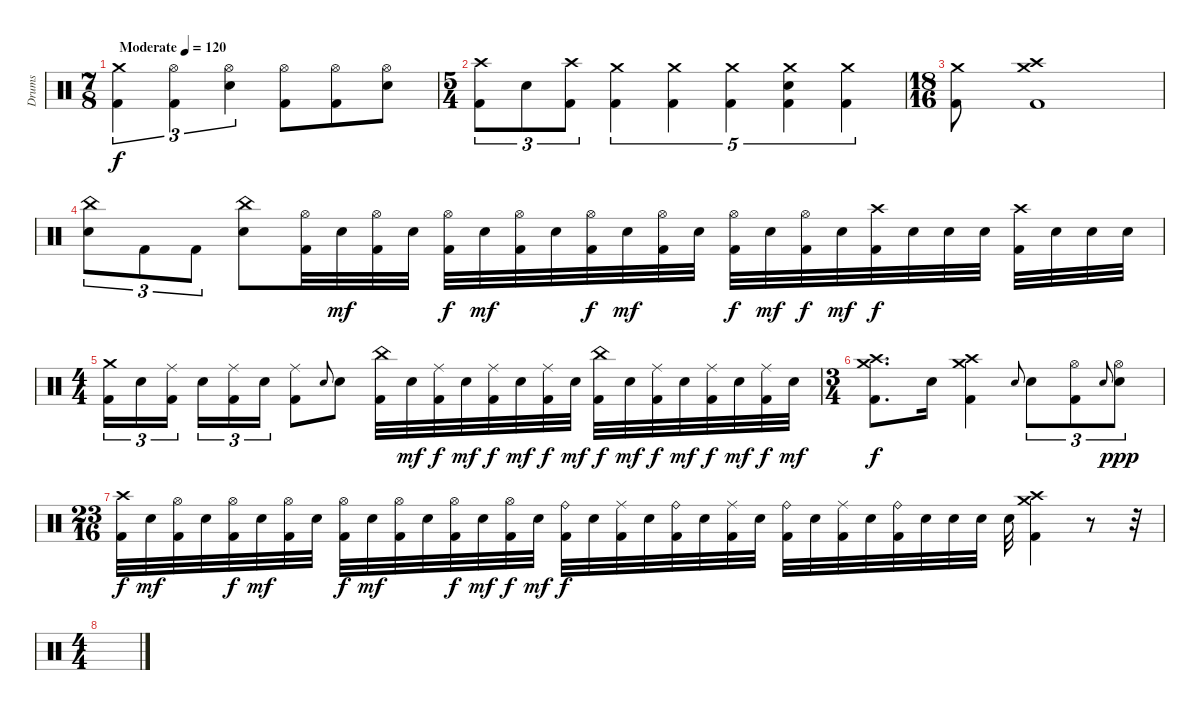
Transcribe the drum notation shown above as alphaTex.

\track ("Drums" "Drums") {instrument percussion}
\staff {score}
\articulation defaults
\ts (7 8)
\tempo (120 "Moderate")
\clef neutral
\ks c
("Crash medium (hit)" "Kick (hit) 2").4{tu (3 2) dy f} ("Hi-Hat (open)" "Kick (hit) 2").4{tu (3 2)} ("Hi-Hat (open)" "Electric Snare (hit)").4{tu (3 2)} ("Hi-Hat (open)" "Kick (hit) 2").8 ("Hi-Hat (open)" "Kick (hit) 2").8 ("Hi-Hat (open)" "Electric Snare (hit)").8 |
\ts (5 4)
("Crash high (hit)" "Kick (hit) 2").8{tu (3 2)} "Electric Snare (hit)".8{tu (3 2)} ("Crash high (hit)" "Kick (hit) 2").8{tu (3 2)} ("Crash medium (hit)" "Kick (hit) 2").4{tu (5 4)} ("Crash medium (hit)" "Kick (hit) 2").4{tu (5 4)} ("Crash medium (hit)" "Kick (hit) 2").4{tu (5 4)} ("Crash medium (hit)" "Electric Snare (hit)" "Kick (hit) 2").4{tu (5 4)} ("Crash medium (hit)" "Kick (hit) 2").4{tu (5 4)} |
\ts (18 16)
("Crash medium (hit)" "Kick (hit) 2").8 ("Crash medium (hit)" "Crash high (hit)" "Kick (hit) 2").1 |
("China (hit)" "Electric Snare (hit)").8{tu (3 2)} "Kick (hit) 2".8{tu (3 2)} "Kick (hit) 2".8{tu (3 2)} ("China (hit)" "Electric Snare (hit)").8 ("Hi-Hat (open)" "Kick (hit) 2").32 "Electric Snare (hit)".32{dy mf} ("Hi-Hat (open)" "Kick (hit) 2").32 "Electric Snare (hit)".32 ("Hi-Hat (open)" "Kick (hit) 2").32{dy f} "Electric Snare (hit)".32{dy mf} ("Hi-Hat (open)" "Kick (hit) 2").32 "Electric Snare (hit)".32 ("Hi-Hat (open)" "Kick (hit) 2").32{dy f} "Electric Snare (hit)".32{dy mf} ("Hi-Hat (open)" "Kick (hit) 2").32 "Electric Snare (hit)".32 ("Hi-Hat (open)" "Kick (hit) 2").32{dy f} "Electric Snare (hit)".32{dy mf} ("Hi-Hat (open)" "Kick (hit) 2").32{dy f} "Electric Snare (hit)".32{dy mf} ("Crash high (hit)" "Kick (hit) 2").32{dy f} "Electric Snare (hit)".32 "Electric Snare (hit)".32 "Electric Snare (hit)".32 ("Crash high (hit)" "Kick (hit) 2").32 "Electric Snare (hit)".32 "Electric Snare (hit)".32 "Electric Snare (hit)".32 |
\ts (4 4)
("Crash medium (hit)" "Kick (hit) 2").16{tu (3 2)} "Electric Snare (hit)".16{tu (3 2)} ("Ride (middle)" "Kick (hit) 2").16{tu (3 2) beam splitsecondary} "Electric Snare (hit)".16{tu (3 2)} ("Ride (middle)" "Kick (hit) 2").16{tu (3 2)} "Electric Snare (hit)".16{tu (3 2)} ("Ride (middle)" "Kick (hit) 2").8 "Electric Snare (hit)".8{gr onbeat} "Electric Snare (hit)".8 ("China (hit)" "Kick (hit) 2").32 "Electric Snare (hit)".32{dy mf} ("Ride (middle)" "Kick (hit) 2").32{dy f} "Electric Snare (hit)".32{dy mf} ("Ride (middle)" "Kick (hit) 2").32{dy f} "Electric Snare (hit)".32{dy mf} ("Ride (middle)" "Kick (hit) 2").32{dy f} "Electric Snare (hit)".32{dy mf} ("China (hit)" "Kick (hit) 2").32{dy f} "Electric Snare (hit)".32{dy mf} ("Ride (middle)" "Kick (hit) 2").32{dy f} "Electric Snare (hit)".32{dy mf} ("Ride (middle)" "Kick (hit) 2").32{dy f} "Electric Snare (hit)".32{dy mf} ("Ride (middle)" "Kick (hit) 2").32{dy f} "Electric Snare (hit)".32{dy mf} |
\ts (3 4)
("Crash medium (hit)" "Crash high (hit)" "Kick (hit) 2").8{d dy f} "Electric Snare (hit)".16 ("Crash medium (hit)" "Crash high (hit)" "Kick (hit) 2").4 "Electric Snare (hit)".8{gr onbeat} "Electric Snare (hit)".8{tu (3 2)} ("Hi-Hat (open)" "Kick (hit) 2").8{tu (3 2)} "Electric Snare (hit)".8{gr onbeat} ("Hi-Hat (open)" "Electric Snare (hit)").8{tu (3 2) dy ppp} |
\ts (23 16)
("Crash high (hit)" "Kick (hit) 2").32{dy f} "Electric Snare (hit)".32{dy mf} ("Hi-Hat (open)" "Kick (hit) 2").32 "Electric Snare (hit)".32 ("Hi-Hat (open)" "Kick (hit) 2").32{dy f} "Electric Snare (hit)".32{dy mf} ("Hi-Hat (open)" "Kick (hit) 2").32 "Electric Snare (hit)".32 ("Hi-Hat (open)" "Kick (hit) 2").32{dy f} "Electric Snare (hit)".32{dy mf} ("Hi-Hat (open)" "Kick (hit) 2").32 "Electric Snare (hit)".32 ("Hi-Hat (open)" "Kick (hit) 2").32{dy f} "Electric Snare (hit)".32{dy mf} ("Hi-Hat (open)" "Kick (hit) 2").32{dy f} "Electric Snare (hit)".32{dy mf} ("Ride (bell)" "Kick (hit) 2").32{dy f} "Electric Snare (hit)".32 ("Ride (middle)" "Kick (hit) 2").32 "Electric Snare (hit)".32 ("Ride (bell)" "Kick (hit) 2").32 "Electric Snare (hit)".32 ("Ride (middle)" "Kick (hit) 2").32 "Electric Snare (hit)".32 ("Ride (bell)" "Kick (hit) 2").32 "Electric Snare (hit)".32 ("Ride (middle)" "Kick (hit) 2").32 "Electric Snare (hit)".32 ("Ride (bell)" "Kick (hit) 2").32 "Electric Snare (hit)".32 "Electric Snare (hit)".32 "Electric Snare (hit)".32 "Electric Snare (hit)".32 ("Crash medium (hit)" "Crash high (hit)" "Kick (hit) 2").4 r.8 r.32 |
\ts (4 4)
